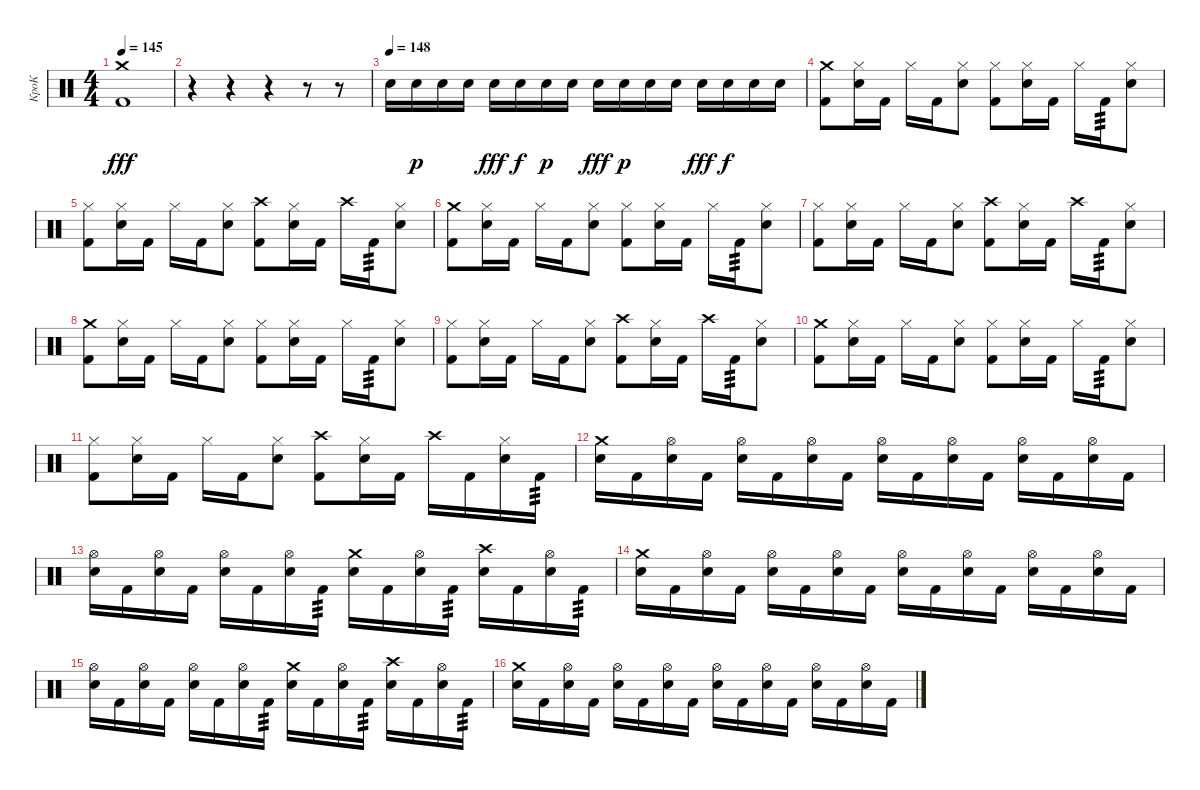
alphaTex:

\track ("КроК" "КроК") {instrument percussion}
\staff {score}
\articulation defaults
\ts (4 4)
\tempo 145
\clef neutral
\ks c
("Kick (hit) 2" "Crash medium (hit)").1{dy fff} |
r.4 r.4 r.4 r.8 r.8 |
\tempo (148)
"Electric Snare (hit)".16 "Electric Snare (hit)".16{dy p} "Electric Snare (hit)".16 "Electric Snare (hit)".16 "Electric Snare (hit)".16{dy fff} "Electric Snare (hit)".16{dy f} "Electric Snare (hit)".16{dy p} "Electric Snare (hit)".16 "Electric Snare (hit)".16{dy fff} "Electric Snare (hit)".16{dy p} "Electric Snare (hit)".16 "Electric Snare (hit)".16 "Electric Snare (hit)".16{dy fff} "Electric Snare (hit)".16{dy f} "Electric Snare (hit)".16 "Electric Snare (hit)".16 |
("Kick (hit) 2" "Crash medium (hit)").8 ("Electric Snare (hit)" "Hi-Hat (closed)").16 "Kick (hit) 2".16 "Hi-Hat (closed)".16 "Kick (hit) 2".16 ("Electric Snare (hit)" "Hi-Hat (closed)").8 ("Kick (hit) 2" "Hi-Hat (closed)").8 ("Electric Snare (hit)" "Hi-Hat (closed)").16 "Kick (hit) 2".16 "Hi-Hat (closed)".16 "Kick (hit) 2".16{tp 3} ("Electric Snare (hit)" "Hi-Hat (closed)").8 |
("Kick (hit) 2" "Hi-Hat (closed)").8 ("Electric Snare (hit)" "Hi-Hat (closed)").16 "Kick (hit) 2".16 "Hi-Hat (closed)".16 "Kick (hit) 2".16 ("Electric Snare (hit)" "Hi-Hat (closed)").8 ("Kick (hit) 2" "Crash high (hit)").8 ("Electric Snare (hit)" "Hi-Hat (closed)").16 "Kick (hit) 2".16 "Crash high (hit)".16 "Kick (hit) 2".16{tp 3} ("Electric Snare (hit)" "Hi-Hat (closed)").8 |
("Kick (hit) 2" "Crash medium (hit)").8 ("Electric Snare (hit)" "Hi-Hat (closed)").16 "Kick (hit) 2".16 "Hi-Hat (closed)".16 "Kick (hit) 2".16 ("Electric Snare (hit)" "Hi-Hat (closed)").8 ("Kick (hit) 2" "Hi-Hat (closed)").8 ("Electric Snare (hit)" "Hi-Hat (closed)").16 "Kick (hit) 2".16 "Hi-Hat (closed)".16 "Kick (hit) 2".16{tp 3} ("Electric Snare (hit)" "Hi-Hat (closed)").8 |
("Kick (hit) 2" "Hi-Hat (closed)").8 ("Electric Snare (hit)" "Hi-Hat (closed)").16 "Kick (hit) 2".16 "Hi-Hat (closed)".16 "Kick (hit) 2".16 ("Electric Snare (hit)" "Hi-Hat (closed)").8 ("Kick (hit) 2" "Crash high (hit)").8 ("Electric Snare (hit)" "Hi-Hat (closed)").16 "Kick (hit) 2".16 "Crash high (hit)".16 "Kick (hit) 2".16{tp 3} ("Electric Snare (hit)" "Hi-Hat (closed)").8 |
("Kick (hit) 2" "Crash medium (hit)").8 ("Electric Snare (hit)" "Hi-Hat (closed)").16 "Kick (hit) 2".16 "Hi-Hat (closed)".16 "Kick (hit) 2".16 ("Electric Snare (hit)" "Hi-Hat (closed)").8 ("Kick (hit) 2" "Hi-Hat (closed)").8 ("Electric Snare (hit)" "Hi-Hat (closed)").16 "Kick (hit) 2".16 "Hi-Hat (closed)".16 "Kick (hit) 2".16{tp 3} ("Electric Snare (hit)" "Hi-Hat (closed)").8 |
("Kick (hit) 2" "Hi-Hat (closed)").8 ("Electric Snare (hit)" "Hi-Hat (closed)").16 "Kick (hit) 2".16 "Hi-Hat (closed)".16 "Kick (hit) 2".16 ("Electric Snare (hit)" "Hi-Hat (closed)").8 ("Kick (hit) 2" "Crash high (hit)").8 ("Electric Snare (hit)" "Hi-Hat (closed)").16 "Kick (hit) 2".16 "Crash high (hit)".16 "Kick (hit) 2".16{tp 3} ("Electric Snare (hit)" "Hi-Hat (closed)").8 |
("Kick (hit) 2" "Crash medium (hit)").8 ("Electric Snare (hit)" "Hi-Hat (closed)").16 "Kick (hit) 2".16 "Hi-Hat (closed)".16 "Kick (hit) 2".16 ("Electric Snare (hit)" "Hi-Hat (closed)").8 ("Kick (hit) 2" "Hi-Hat (closed)").8 ("Electric Snare (hit)" "Hi-Hat (closed)").16 "Kick (hit) 2".16 "Hi-Hat (closed)".16 "Kick (hit) 2".16{tp 3} ("Electric Snare (hit)" "Hi-Hat (closed)").8 |
("Kick (hit) 2" "Hi-Hat (closed)").8 ("Electric Snare (hit)" "Hi-Hat (closed)").16 "Kick (hit) 2".16 "Hi-Hat (closed)".16 "Kick (hit) 2".16 ("Electric Snare (hit)" "Hi-Hat (closed)").8 ("Kick (hit) 2" "Crash high (hit)").8 ("Electric Snare (hit)" "Hi-Hat (closed)").16 "Kick (hit) 2".16 "Crash high (hit)".16 "Kick (hit) 2".16 ("Electric Snare (hit)" "Hi-Hat (closed)").16 "Kick (hit) 2".16{tp 3} |
("Electric Snare (hit)" "Crash medium (hit)").16 "Kick (hit) 2".16 ("Electric Snare (hit)" "Hi-Hat (open)").16 "Kick (hit) 2".16 ("Electric Snare (hit)" "Hi-Hat (open)").16 "Kick (hit) 2".16 ("Electric Snare (hit)" "Hi-Hat (open)").16 "Kick (hit) 2".16 ("Electric Snare (hit)" "Hi-Hat (open)").16 "Kick (hit) 2".16 ("Electric Snare (hit)" "Hi-Hat (open)").16 "Kick (hit) 2".16 ("Electric Snare (hit)" "Hi-Hat (open)").16 "Kick (hit) 2".16 ("Electric Snare (hit)" "Hi-Hat (open)").16 "Kick (hit) 2".16 |
("Electric Snare (hit)" "Hi-Hat (open)").16 "Kick (hit) 2".16 ("Electric Snare (hit)" "Hi-Hat (open)").16 "Kick (hit) 2".16 ("Electric Snare (hit)" "Hi-Hat (open)").16 "Kick (hit) 2".16 ("Electric Snare (hit)" "Hi-Hat (open)").16 "Kick (hit) 2".16{tp 3} ("Electric Snare (hit)" "Crash medium (hit)").16 "Kick (hit) 2".16 ("Electric Snare (hit)" "Hi-Hat (open)").16 "Kick (hit) 2".16{tp 3} ("Electric Snare (hit)" "Crash high (hit)").16 "Kick (hit) 2".16 ("Electric Snare (hit)" "Hi-Hat (open)").16 "Kick (hit) 2".16{tp 3} |
("Electric Snare (hit)" "Crash medium (hit)").16 "Kick (hit) 2".16 ("Electric Snare (hit)" "Hi-Hat (open)").16 "Kick (hit) 2".16 ("Electric Snare (hit)" "Hi-Hat (open)").16 "Kick (hit) 2".16 ("Electric Snare (hit)" "Hi-Hat (open)").16 "Kick (hit) 2".16 ("Electric Snare (hit)" "Hi-Hat (open)").16 "Kick (hit) 2".16 ("Electric Snare (hit)" "Hi-Hat (open)").16 "Kick (hit) 2".16 ("Electric Snare (hit)" "Hi-Hat (open)").16 "Kick (hit) 2".16 ("Electric Snare (hit)" "Hi-Hat (open)").16 "Kick (hit) 2".16 |
("Electric Snare (hit)" "Hi-Hat (open)").16 "Kick (hit) 2".16 ("Electric Snare (hit)" "Hi-Hat (open)").16 "Kick (hit) 2".16 ("Electric Snare (hit)" "Hi-Hat (open)").16 "Kick (hit) 2".16 ("Electric Snare (hit)" "Hi-Hat (open)").16 "Kick (hit) 2".16{tp 3} ("Electric Snare (hit)" "Crash medium (hit)").16 "Kick (hit) 2".16 ("Electric Snare (hit)" "Hi-Hat (open)").16 "Kick (hit) 2".16{tp 3} ("Electric Snare (hit)" "Crash high (hit)").16 "Kick (hit) 2".16 ("Electric Snare (hit)" "Hi-Hat (open)").16 "Kick (hit) 2".16{tp 3} |
("Electric Snare (hit)" "Crash medium (hit)").16 "Kick (hit) 2".16 ("Electric Snare (hit)" "Hi-Hat (open)").16 "Kick (hit) 2".16 ("Electric Snare (hit)" "Hi-Hat (open)").16 "Kick (hit) 2".16 ("Electric Snare (hit)" "Hi-Hat (open)").16 "Kick (hit) 2".16 ("Electric Snare (hit)" "Hi-Hat (open)").16 "Kick (hit) 2".16 ("Electric Snare (hit)" "Hi-Hat (open)").16 "Kick (hit) 2".16 ("Electric Snare (hit)" "Hi-Hat (open)").16 "Kick (hit) 2".16 ("Electric Snare (hit)" "Hi-Hat (open)").16 "Kick (hit) 2".16
